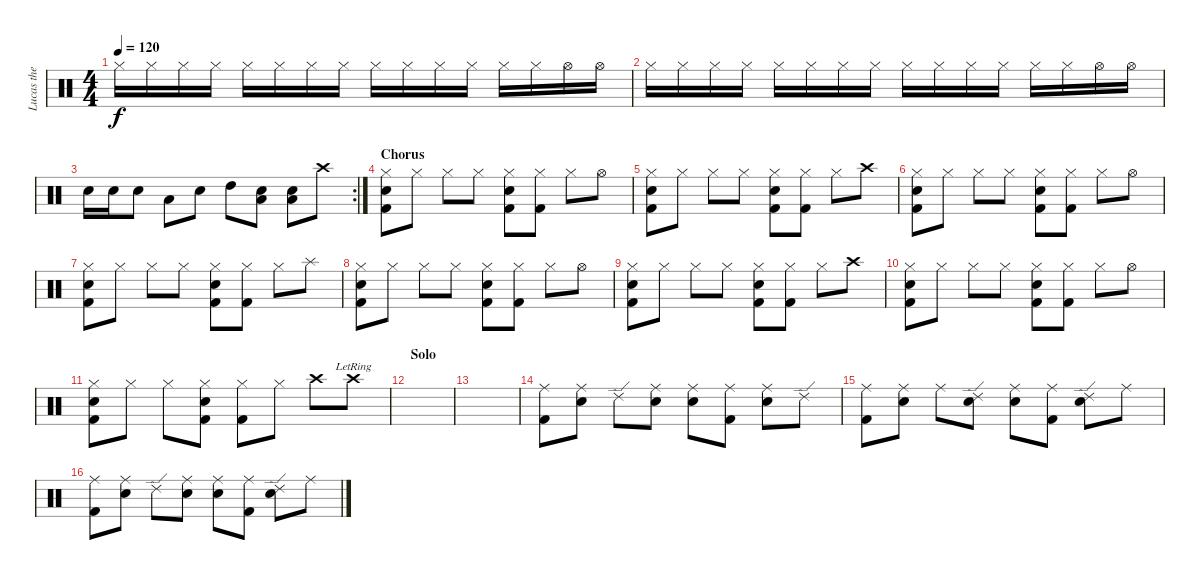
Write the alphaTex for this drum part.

\track ("Lucas the MAN" "Lucas the ") {instrument percussion}
\staff {score}
\articulation defaults
\ts (4 4)
\tempo 120
\clef neutral
\ks c "Hi-Hat (closed)".16{dy f} "Hi-Hat (closed)".16 "Hi-Hat (closed)".16 "Hi-Hat (closed)".16 "Hi-Hat (closed)".16 "Hi-Hat (closed)".16 "Hi-Hat (closed)".16 "Hi-Hat (closed)".16 "Hi-Hat (closed)".16 "Hi-Hat (closed)".16 "Hi-Hat (closed)".16 "Hi-Hat (closed)".16 "Hi-Hat (closed)".16 "Hi-Hat (closed)".16 "Hi-Hat (open)".16 "Hi-Hat (open)".16
|
"Hi-Hat (closed)".16 "Hi-Hat (closed)".16 "Hi-Hat (closed)".16 "Hi-Hat (closed)".16 "Hi-Hat (closed)".16 "Hi-Hat (closed)".16 "Hi-Hat (closed)".16 "Hi-Hat (closed)".16 "Hi-Hat (closed)".16 "Hi-Hat (closed)".16 "Hi-Hat (closed)".16 "Hi-Hat (closed)".16 "Hi-Hat (closed)".16 "Hi-Hat (closed)".16 "Hi-Hat (open)".16 "Hi-Hat (open)".16 |
\rc 2 "Electric Snare (hit)".16 "Electric Snare (hit)".16 "Electric Snare (hit)".8 "Low Tom (hit)".8 "Electric Snare (hit)".8 "High Tom (hit)".8
("Low Floor Tom (hit)" "Electric Snare (hit)").8 ("Low Floor Tom (hit)" "Electric Snare (hit)").8 "Crash high (hit)".8 |
\section ("" "Chorus")
("Electric Snare (hit)" "Hi-Hat (closed)" "Kick (hit) 2").8 "Hi-Hat (closed)".8 "Hi-Hat (closed)".8 "Hi-Hat (closed)".8 ("Electric Snare (hit)" "Hi-Hat (closed)" "Kick (hit) 2").8 ("Hi-Hat (closed)" "Kick (hit) 2").8 "Hi-Hat (closed)".8 "Hi-Hat (open)".8 |
("Electric Snare (hit)" "Hi-Hat (closed)" "Kick (hit) 2").8 "Hi-Hat (closed)".8 "Hi-Hat (closed)".8 "Hi-Hat (closed)".8 ("Electric Snare (hit)" "Hi-Hat (closed)" "Kick (hit) 2").8 ("Hi-Hat (closed)" "Kick (hit) 2").8 "Hi-Hat (closed)".8 "Crash high (hit)".8 |
("Electric Snare (hit)" "Hi-Hat (closed)" "Kick (hit) 2").8 "Hi-Hat (closed)".8 "Hi-Hat (closed)".8 "Hi-Hat (closed)".8 ("Electric Snare (hit)" "Hi-Hat (closed)" "Kick (hit) 2").8 ("Hi-Hat (closed)" "Kick (hit) 2").8 "Hi-Hat (closed)".8 "Hi-Hat (open)".8 |
("Electric Snare (hit)" "Hi-Hat (closed)" "Kick (hit) 2").8 "Hi-Hat (closed)".8 "Hi-Hat (closed)".8 "Hi-Hat (closed)".8 ("Electric Snare (hit)" "Hi-Hat (closed)" "Kick (hit) 2").8 ("Hi-Hat (closed)" "Kick (hit) 2").8 "Hi-Hat (closed)".8 "Splash (hit)".8 |
("Electric Snare (hit)" "Hi-Hat (closed)" "Kick (hit) 2").8 "Hi-Hat (closed)".8 "Hi-Hat (closed)".8 "Hi-Hat (closed)".8 ("Electric Snare (hit)" "Hi-Hat (closed)" "Kick (hit) 2").8 ("Hi-Hat (closed)" "Kick (hit) 2").8 "Hi-Hat (closed)".8 "Hi-Hat (open)".8 |
("Electric Snare (hit)" "Hi-Hat (closed)" "Kick (hit) 2").8 "Hi-Hat (closed)".8 "Hi-Hat (closed)".8 "Hi-Hat (closed)".8 ("Electric Snare (hit)" "Hi-Hat (closed)" "Kick (hit) 2").8 ("Hi-Hat (closed)" "Kick (hit) 2").8 "Hi-Hat (closed)".8 "Crash high (hit)".8 |
("Electric Snare (hit)" "Hi-Hat (closed)" "Kick (hit) 2").8 "Hi-Hat (closed)".8 "Hi-Hat (closed)".8 "Hi-Hat (closed)".8 ("Electric Snare (hit)" "Hi-Hat (closed)" "Kick (hit) 2").8 ("Hi-Hat (closed)" "Kick (hit) 2").8 "Hi-Hat (closed)".8 "Hi-Hat (open)".8 |
("Electric Snare (hit)" "Hi-Hat (closed)" "Kick (hit) 2").8 "Hi-Hat (closed)".8 "Hi-Hat (closed)".8 ("Electric Snare (hit)" "Hi-Hat (closed)" "Kick (hit) 2").8 ("Hi-Hat (closed)" "Kick (hit) 2").8 "Hi-Hat (closed)".8 "Crash high (hit)".8 "Crash high (hit)"{lr}.8 |
\section ("" "Solo")
|
|
("Ride (middle)" "Kick (hit) 2").8 ("Ride (middle)" "Electric Snare (hit)").8 "Ride (edge) 2".8 ("Ride (middle)" "Electric Snare (hit)").8 ("Ride (middle)" "Electric Snare (hit)").8 ("Ride (middle)" "Kick (hit) 2").8 ("Ride (middle)" "Electric Snare (hit)").8 "Ride (edge) 2".8 |
("Ride (middle)" "Kick (hit) 2").8 ("Ride (middle)" "Electric Snare (hit)").8 "Ride (middle)".8 ("Ride (edge) 2" "Electric Snare (hit)").8 ("Ride (middle)" "Electric Snare (hit)").8 ("Ride (middle)" "Kick (hit) 2").8 ("Ride (edge) 2" "Electric Snare (hit)").8 "Ride (middle)".8 |
("Ride (middle)" "Kick (hit) 2").8 ("Ride (middle)" "Electric Snare (hit)").8 "Ride (edge) 2".8 ("Ride (middle)" "Electric Snare (hit)").8 ("Ride (middle)" "Electric Snare (hit)").8 ("Ride (middle)" "Kick (hit) 2").8 ("Ride (edge) 2" "Electric Snare (hit)").8 "Ride (middle)".8
